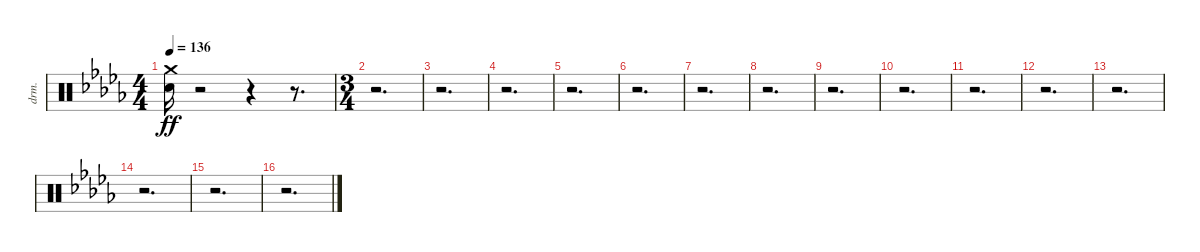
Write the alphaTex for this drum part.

\bracketExtendMode nobrackets
\track ("Drums" "drm.") {instrument percussion}
\staff {score}
\articulation defaults
\ts (4 4)
\tempo 136
\clef neutral
\ks db
("Electric Snare (hit)"{acc forcenatural} "Crash medium (hit)"{acc forcenatural}).16{dy ff beam Down} r.2{beam Down} r.4{beam Down} r.8{d beam Down} |
\ts (3 4)
r.2{d beam Down} |
r.2{d beam Down} |
r.2{d beam Down} |
r.2{d beam Down} |
r.2{d beam Down} |
r.2{d beam Down} |
r.2{d beam Down} |
r.2{d beam Down} |
r.2{d beam Down} |
r.2{d beam Down} |
r.2{d beam Down} |
r.2{d beam Down} |
r.2{d beam Down} |
r.2{d beam Down} |
r.2{d beam Down}
